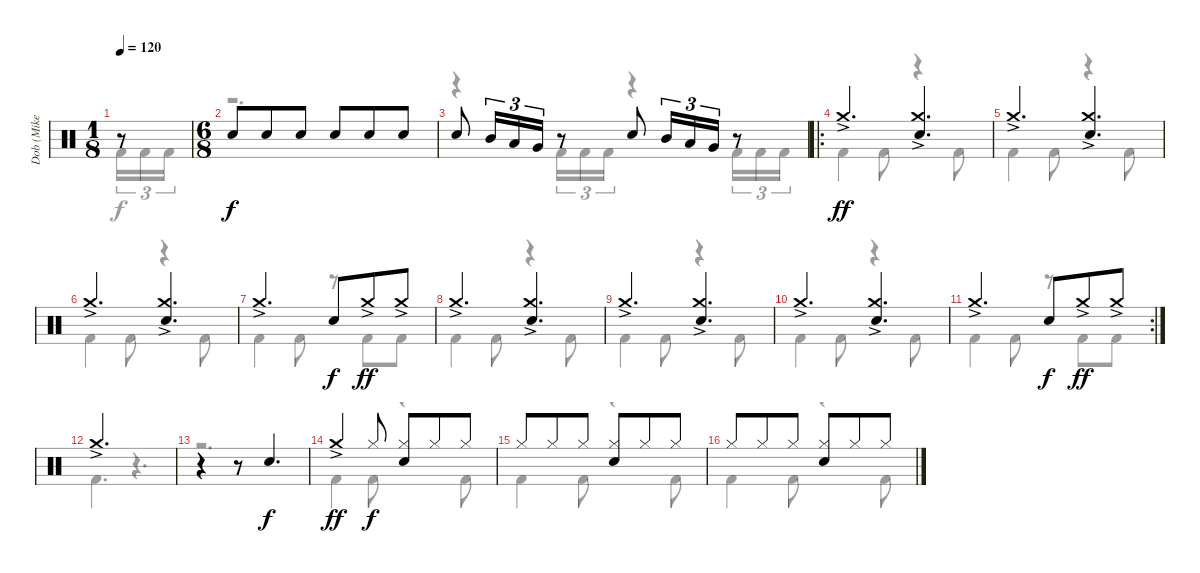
\track ("Dob (Mike Terrana)" "Dob (Mike ") {instrument percussion}
\staff {score}
\articulation defaults
\voice
\ts (1 8)
\tempo 120
\clef neutral
\ks c
r.8{dy f volume 16} |
\ts (6 8)
"Electric Snare (hit)".8 "Electric Snare (hit)".8 "Electric Snare (hit)".8 "Electric Snare (hit)".8 "Electric Snare (hit)".8 "Electric Snare (hit)".8 |
"Electric Snare (hit)".8 "Mid Tom (hit)".16{tu (3 2)} "Low Tom (hit)".16{tu (3 2)} "Very Low Tom (hit)".16{tu (3 2)} r.8 "Electric Snare (hit)".8 "Mid Tom (hit)".16{tu (3 2)} "Low Tom (hit)".16{tu (3 2)} "Very Low Tom (hit)".16{tu (3 2)} r.8{volume 13} |
\ro "Crash medium (hit)"{ac}.4{d dy ff}
("Crash medium (hit)"{ac} "Electric Snare (hit)").4{d} |
"Crash medium (hit)"{ac}.4{d} ("Crash medium (hit)"{ac} "Electric Snare (hit)").4{d} |
"Crash medium (hit)"{ac}.4{d} ("Crash medium (hit)"{ac} "Electric Snare (hit)").4{d} |
"Crash medium (hit)"{ac}.4{d} "Electric Snare (hit)".8{dy f} "Crash medium (hit)"{ac}.8{dy ff} "Crash medium (hit)"{ac}.8 |
"Crash medium (hit)"{ac}.4{d} ("Crash medium (hit)"{ac} "Electric Snare (hit)").4{d} |
"Crash medium (hit)"{ac}.4{d} ("Crash medium (hit)"{ac} "Electric Snare (hit)").4{d} |
"Crash medium (hit)"{ac}.4{d} ("Crash medium (hit)"{ac} "Electric Snare (hit)").4{d} |
\rc 2 "Crash medium (hit)"{ac}.4{d} "Electric Snare (hit)".8{dy f} "Crash medium (hit)"{ac}.8{dy ff} "Crash medium (hit)"{ac}.8
|
"Crash medium (hit)"{ac}.2{d} |
r.4 r.8 "Electric Snare (hit)".4{d dy f} |
"Crash medium (hit)"{ac}.4{dy ff} "Hi-Hat (closed)".8{dy f} ("Hi-Hat (closed)" "Electric Snare (hit)").8 "Hi-Hat (closed)".8 "Hi-Hat (closed)".8 |
"Hi-Hat (closed)".8 "Hi-Hat (closed)".8 "Hi-Hat (closed)".8 ("Hi-Hat (closed)" "Electric Snare (hit)").8 "Hi-Hat (closed)".8 "Hi-Hat (closed)".8 |
"Hi-Hat (closed)".8 "Hi-Hat (closed)".8 "Hi-Hat (closed)".8 ("Hi-Hat (closed)" "Electric Snare (hit)").8 "Hi-Hat (closed)".8 "Hi-Hat (closed)".8
\voice
\clef neutral
\ottava regular
\simile none
\ks c "Kick (hit) 2".16{tu (3 2) dy f} "Kick (hit) 2".16{tu (3 2)} "Kick (hit) 2".16{tu (3 2)}
|
r.2{d} |
r.4 "Kick (hit) 2".16{tu (3 2)} "Kick (hit) 2".16{tu (3 2)} "Kick (hit) 2".16{tu (3 2)} r.4 "Kick (hit) 2".16{tu (3 2)} "Kick (hit) 2".16{tu (3 2)} "Kick (hit) 2".16{tu (3 2)} |
"Kick (hit) 2".4 "Kick (hit) 2".8 r.4 "Kick (hit) 2".8 |
"Kick (hit) 2".4 "Kick (hit) 2".8 r.4 "Kick (hit) 2".8 |
"Kick (hit) 2".4 "Kick (hit) 2".8 r.4 "Kick (hit) 2".8 |
"Kick (hit) 2".4 "Kick (hit) 2".8 r.8 "Kick (hit) 2".8 "Kick (hit) 2".8 |
"Kick (hit) 2".4 "Kick (hit) 2".8 r.4 "Kick (hit) 2".8 |
"Kick (hit) 2".4 "Kick (hit) 2".8 r.4 "Kick (hit) 2".8 |
"Kick (hit) 2".4 "Kick (hit) 2".8 r.4 "Kick (hit) 2".8 |
"Kick (hit) 2".4 "Kick (hit) 2".8 r.8 "Kick (hit) 2".8 "Kick (hit) 2".8 |
"Kick (hit) 2".4{d} r.4{d} |
r.2{d} |
"Kick (hit) 2".4 "Kick (hit) 2".8 r.4 "Kick (hit) 2".8 |
"Kick (hit) 2".4 "Kick (hit) 2".8 r.4 "Kick (hit) 2".8 |
"Kick (hit) 2".4 "Kick (hit) 2".8 r.4 "Kick (hit) 2".8
